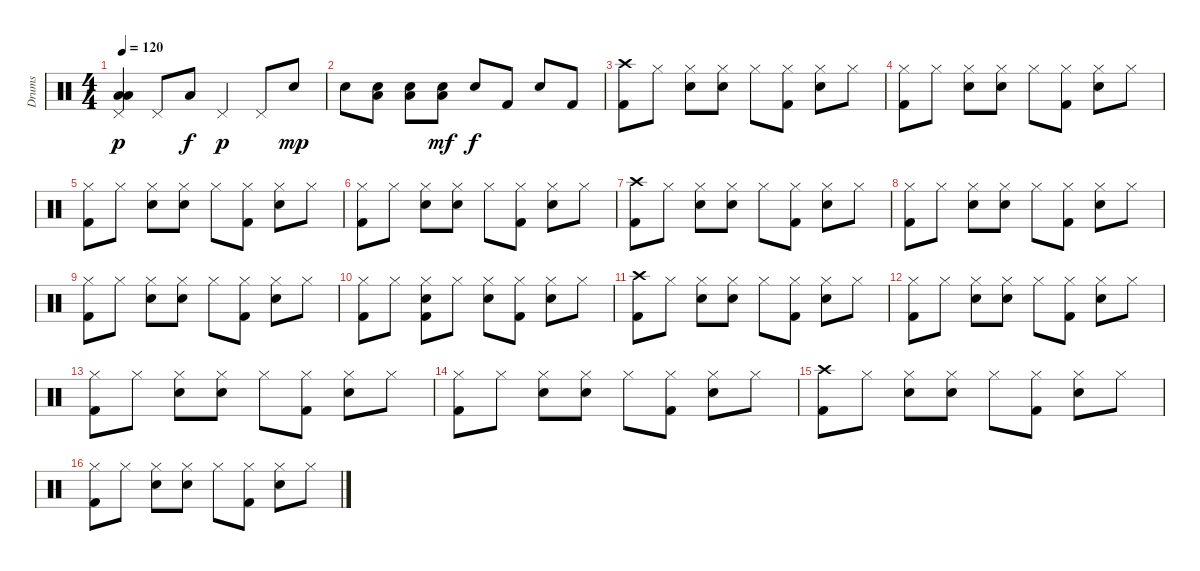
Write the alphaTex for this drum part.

\track ("Drums" "Drums") {instrument percussion}
\staff {score}
\articulation defaults
\ts (4 4)
\tempo 120
\clef neutral
\ks c
("Pedal Hi-Hat (hit)" "Low Tom (hit)" "Low Floor Tom (hit)").4{dy p} "Pedal Hi-Hat (hit)".8 "Low Floor Tom (hit)".8{dy f} "Pedal Hi-Hat (hit)".4{dy p} "Pedal Hi-Hat (hit)".8 "Snare (hit) 2".8{dy mp} |
"Snare (hit) 2".8 ("Low Floor Tom (hit)" "Snare (hit) 2").8 ("Low Floor Tom (hit)" "Snare (hit) 2").8 ("Low Floor Tom (hit)" "Snare (hit) 2").8{dy mf} "Snare (hit) 2".8{dy f} "Kick (hit) 2".8 "Snare (hit) 2".8 "Kick (hit) 2".8 |
("Crash high (hit)" "Kick (hit) 2").8 "Hi-Hat (closed)".8 ("Hi-Hat (closed)" "Snare (hit) 2").8 ("Hi-Hat (closed)" "Snare (hit) 2").8 "Hi-Hat (closed)".8 ("Hi-Hat (closed)" "Kick (hit) 2").8 ("Hi-Hat (closed)" "Snare (hit) 2").8 "Hi-Hat (closed)".8 |
("Hi-Hat (closed)" "Kick (hit) 2").8 "Hi-Hat (closed)".8 ("Hi-Hat (closed)" "Snare (hit) 2").8 ("Hi-Hat (closed)" "Snare (hit) 2").8 "Hi-Hat (closed)".8 ("Hi-Hat (closed)" "Kick (hit) 2").8 ("Hi-Hat (closed)" "Snare (hit) 2").8 "Hi-Hat (closed)".8 |
("Hi-Hat (closed)" "Kick (hit) 2").8 "Hi-Hat (closed)".8 ("Hi-Hat (closed)" "Snare (hit) 2").8 ("Hi-Hat (closed)" "Snare (hit) 2").8 "Hi-Hat (closed)".8 ("Hi-Hat (closed)" "Kick (hit) 2").8 ("Hi-Hat (closed)" "Snare (hit) 2").8 "Hi-Hat (closed)".8 |
("Hi-Hat (closed)" "Kick (hit) 2").8 "Hi-Hat (closed)".8 ("Hi-Hat (closed)" "Snare (hit) 2").8 ("Hi-Hat (closed)" "Snare (hit) 2").8 "Hi-Hat (closed)".8 ("Hi-Hat (closed)" "Kick (hit) 2").8 ("Hi-Hat (closed)" "Snare (hit) 2").8 "Hi-Hat (closed)".8 |
("Crash high (hit)" "Kick (hit) 2").8 "Hi-Hat (closed)".8 ("Hi-Hat (closed)" "Snare (hit) 2").8 ("Hi-Hat (closed)" "Snare (hit) 2").8 "Hi-Hat (closed)".8 ("Hi-Hat (closed)" "Kick (hit) 2").8 ("Hi-Hat (closed)" "Snare (hit) 2").8 "Hi-Hat (closed)".8 |
("Hi-Hat (closed)" "Kick (hit) 2").8 "Hi-Hat (closed)".8 ("Hi-Hat (closed)" "Snare (hit) 2").8 ("Hi-Hat (closed)" "Snare (hit) 2").8 "Hi-Hat (closed)".8 ("Hi-Hat (closed)" "Kick (hit) 2").8 ("Hi-Hat (closed)" "Snare (hit) 2").8 "Hi-Hat (closed)".8 |
("Hi-Hat (closed)" "Kick (hit) 2").8 "Hi-Hat (closed)".8 ("Hi-Hat (closed)" "Snare (hit) 2").8 ("Hi-Hat (closed)" "Snare (hit) 2").8 "Hi-Hat (closed)".8 ("Hi-Hat (closed)" "Kick (hit) 2").8 ("Hi-Hat (closed)" "Snare (hit) 2").8 "Hi-Hat (closed)".8 |
("Hi-Hat (closed)" "Kick (hit) 2").8 "Hi-Hat (closed)".8 ("Hi-Hat (closed)" "Snare (hit) 2" "Kick (hit) 2").8 "Hi-Hat (closed)".8 ("Hi-Hat (closed)" "Snare (hit) 2").8 ("Hi-Hat (closed)" "Kick (hit) 2").8 ("Hi-Hat (closed)" "Snare (hit) 2").8 "Hi-Hat (closed)".8 |
("Crash high (hit)" "Kick (hit) 2").8 "Hi-Hat (closed)".8 ("Hi-Hat (closed)" "Snare (hit) 2").8 ("Hi-Hat (closed)" "Snare (hit) 2").8 "Hi-Hat (closed)".8 ("Hi-Hat (closed)" "Kick (hit) 2").8 ("Hi-Hat (closed)" "Snare (hit) 2").8 "Hi-Hat (closed)".8 |
("Hi-Hat (closed)" "Kick (hit) 2").8 "Hi-Hat (closed)".8 ("Hi-Hat (closed)" "Snare (hit) 2").8 ("Hi-Hat (closed)" "Snare (hit) 2").8 "Hi-Hat (closed)".8 ("Hi-Hat (closed)" "Kick (hit) 2").8 ("Hi-Hat (closed)" "Snare (hit) 2").8 "Hi-Hat (closed)".8 |
("Hi-Hat (closed)" "Kick (hit) 2").8 "Hi-Hat (closed)".8 ("Hi-Hat (closed)" "Snare (hit) 2").8 ("Hi-Hat (closed)" "Snare (hit) 2").8 "Hi-Hat (closed)".8 ("Hi-Hat (closed)" "Kick (hit) 2").8 ("Hi-Hat (closed)" "Snare (hit) 2").8 "Hi-Hat (closed)".8 |
("Hi-Hat (closed)" "Kick (hit) 2").8 "Hi-Hat (closed)".8 ("Hi-Hat (closed)" "Snare (hit) 2").8 ("Hi-Hat (closed)" "Snare (hit) 2").8 "Hi-Hat (closed)".8 ("Hi-Hat (closed)" "Kick (hit) 2").8 ("Hi-Hat (closed)" "Snare (hit) 2").8 "Hi-Hat (closed)".8 |
("Crash high (hit)" "Kick (hit) 2").8 "Hi-Hat (closed)".8 ("Hi-Hat (closed)" "Snare (hit) 2").8 ("Hi-Hat (closed)" "Snare (hit) 2").8 "Hi-Hat (closed)".8 ("Hi-Hat (closed)" "Kick (hit) 2").8 ("Hi-Hat (closed)" "Snare (hit) 2").8 "Hi-Hat (closed)".8 |
("Hi-Hat (closed)" "Kick (hit) 2").8 "Hi-Hat (closed)".8 ("Hi-Hat (closed)" "Snare (hit) 2").8 ("Hi-Hat (closed)" "Snare (hit) 2").8 "Hi-Hat (closed)".8 ("Hi-Hat (closed)" "Kick (hit) 2").8 ("Hi-Hat (closed)" "Snare (hit) 2").8 "Hi-Hat (closed)".8
